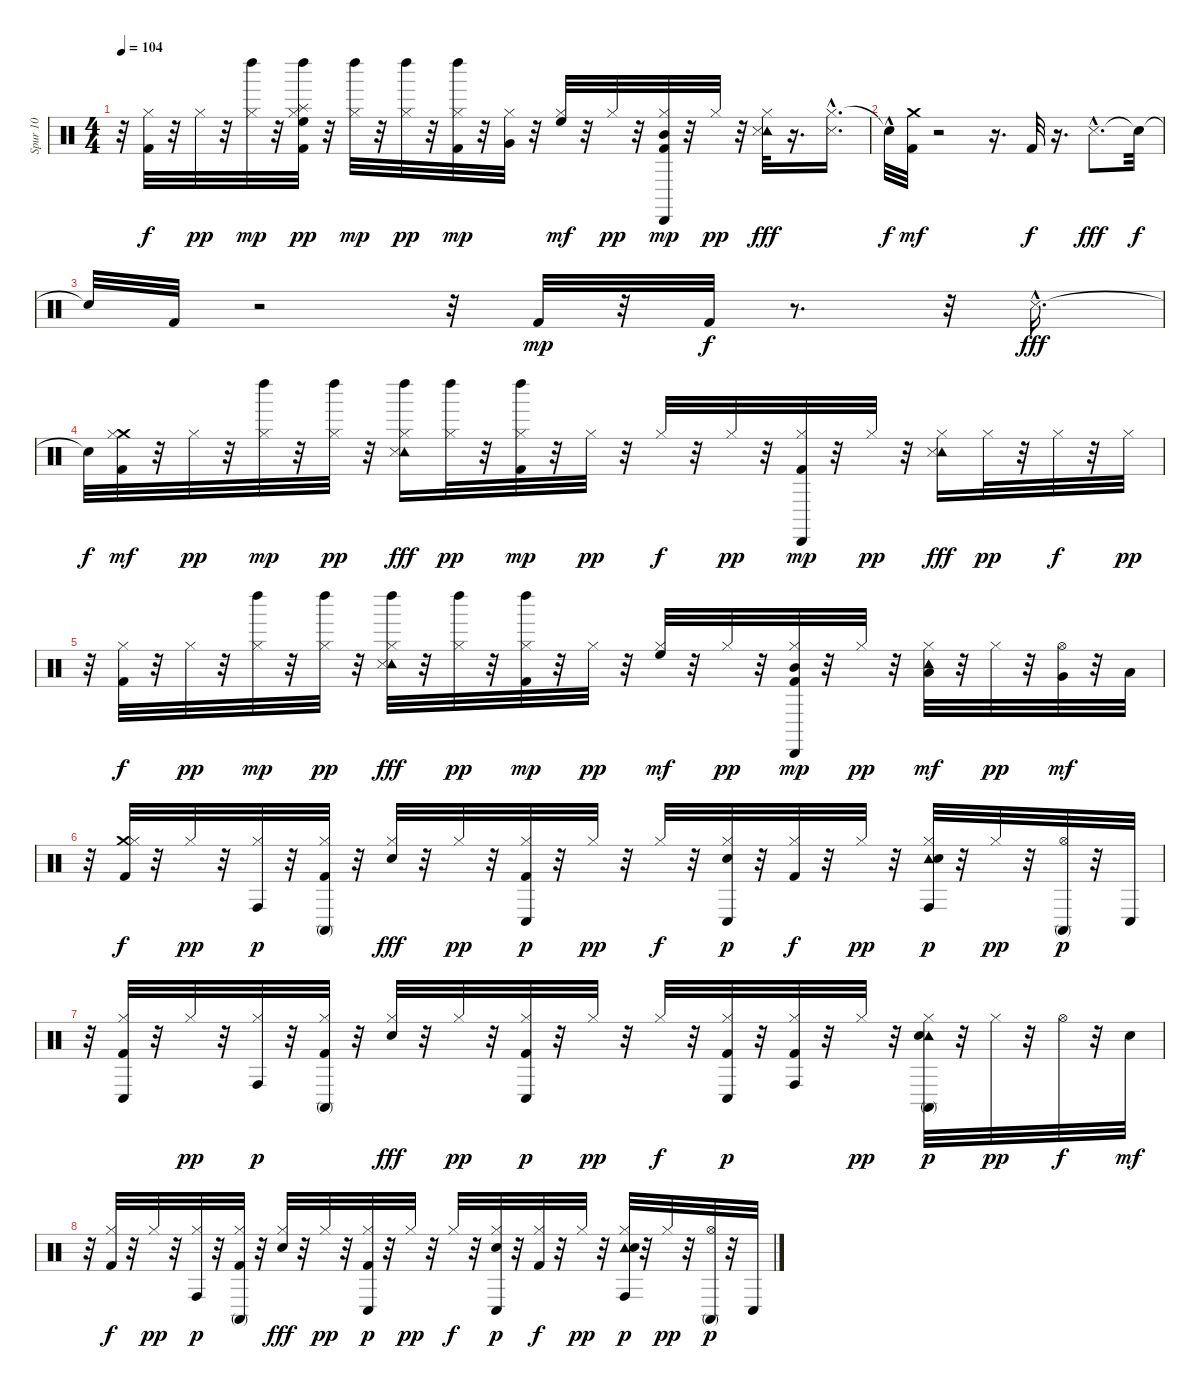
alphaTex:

\track ("Spur 10" "Spur 10") {instrument percussion}
\staff {score}
\articulation defaults
\ts (4 4)
\tempo 104
\clef neutral
\ks c
r.32{dy pp} ("Hi-Hat (closed)" "Kick (hit) 2").32{dy f} r.32 "Hi-Hat (closed)".32{dy pp} r.32 ("Hi-Hat (closed)" "Left Maraca (hit)").32{dy mp} r.32 ("Hi-Hat (closed)" "High Floor Tom (hit)" "Splash (hit)" "Left Maraca (hit)" "Kick (hit) 2").32{dy pp} r.32 ("Hi-Hat (closed)" "Left Maraca (hit)").32{dy mp} r.32 ("Hi-Hat (closed)" "Left Maraca (hit)").32{dy pp} r.32 ("Hi-Hat (closed)" "Left Maraca (hit)" "Kick (hit) 2").32{dy mp} r.32 ("Hi-Hat (closed)" "Very Low Tom (hit)").32 r.32 ("Hi-Hat (closed)" "High Floor Tom (hit)").32{dy mf} r.32 "Hi-Hat (closed)".32{dy pp} r.32 ("Hi-Hat (closed)" "Mid Tom (hit)" "Cabasa (hit)" "Kick (hit) 2").32{dy mp} r.32 "Hi-Hat (closed)".32{dy pp} r.32 ("Hi-Hat (closed)" "Tambourine (hit)" "Snare (side stick) 3").32{dy fff} r.16{d} ("Hi-Hat (closed)" "Snare (side stick) 3"{hac}).16{d} |
"Snare (hit)"{hac t}.32{dy f} ("Crash medium (hit)" "Kick (hit) 2").32{dy mf} r.2 r.16{d} "Kick (hit) 2".32{dy f} r.16{d} "Snare (side stick) 3"{hac}.8{d dy fff} "Snare (hit)"{t}.32{dy f} |
"Snare (hit)"{t}.32 "Kick (hit) 2".32 r.2 r.32 "Kick (hit) 2".32{dy mp} r.32 "Kick (hit) 2".32{dy f} r.8{d} r.32 "Snare (side stick) 3"{hac}.16{d dy fff} |
"Snare (hit)"{t}.32{dy f} ("Crash medium (hit)" "Hi-Hat (closed)" "Kick (hit) 2").32{dy mf} r.32 "Hi-Hat (closed)".32{dy pp} r.32 ("Hi-Hat (closed)" "Left Maraca (hit)").32{dy mp} r.32 ("Hi-Hat (closed)" "Left Maraca (hit)").32{dy pp} r.32 ("Hi-Hat (closed)" "Tambourine (hit)" "Left Maraca (hit)" "Snare (side stick) 3").16{dy fff} ("Hi-Hat (closed)" "Left Maraca (hit)").32{dy pp} r.32 ("Hi-Hat (closed)" "Left Maraca (hit)" "Kick (hit) 2").32{dy mp} r.32 "Hi-Hat (closed)".32{dy pp} r.32 "Hi-Hat (closed)".32{dy f} r.32 "Hi-Hat (closed)".32{dy pp} r.32 ("Hi-Hat (closed)" "Cabasa (hit)" "Kick (hit) 2").32{dy mp} r.32 "Hi-Hat (closed)".32{dy pp} r.32 ("Hi-Hat (closed)" "Tambourine (hit)" "Snare (side stick) 3").16{dy fff} "Hi-Hat (closed)".32{dy pp} r.32 "Hi-Hat (closed)".32{dy f} r.32 "Hi-Hat (closed)".32{dy pp} |
r.32 ("Hi-Hat (closed)" "Kick (hit) 2").32{dy f} r.32 "Hi-Hat (closed)".32{dy pp} r.32 ("Hi-Hat (closed)" "Left Maraca (hit)").32{dy mp} r.32 ("Hi-Hat (closed)" "Left Maraca (hit)").32{dy pp} r.32 ("Hi-Hat (closed)" "Tambourine (hit)" "Left Maraca (hit)" "Snare (side stick) 3").32{dy fff} r.32 ("Hi-Hat (closed)" "Left Maraca (hit)").32{dy pp} r.32 ("Hi-Hat (closed)" "Left Maraca (hit)" "Kick (hit) 2").32{dy mp} r.32 "Hi-Hat (closed)".32{dy pp} r.32 ("Hi-Hat (closed)" "High Floor Tom (hit)").32{dy mf} r.32 "Hi-Hat (closed)".32{dy pp} r.32 ("Hi-Hat (closed)" "Mid Tom (hit)" "Cabasa (hit)" "Kick (hit) 2").32{dy mp} r.32 "Hi-Hat (closed)".32{dy pp} r.32 ("Hi-Hat (closed)" "Low Tom (hit)" "Tambourine (hit)").32{dy mf} r.32 "Hi-Hat (closed)".32{dy pp} r.32 ("Very Low Tom (hit)" "Hi-Hat (open)").32{dy mf} r.32 "Low Floor Tom (hit)".32 |
r.32 ("Crash medium (hit)" "Hi-Hat (closed)" "Kick (hit) 2").32{dy f} r.32 "Hi-Hat (closed)".32{dy pp} r.32 ("Hi-Hat (closed)" "Conga high (hit)").32{dy p} r.32 ("Hi-Hat (closed)" "Kick (hit) 2" "Conga high (mute)").32 r.32 ("Hi-Hat (closed)" "Electric Snare (hit)").32{dy fff} r.32 "Hi-Hat (closed)".32{dy pp} r.32 ("Hi-Hat (closed)" "Kick (hit) 2" "Conga low (hit)").32{dy p} r.32 "Hi-Hat (closed)".32{dy pp} r.32 "Hi-Hat (closed)".32{dy f} r.32 ("Hi-Hat (closed)" "Electric Snare (hit)" "Conga low (hit)").32{dy p} r.32 ("Hi-Hat (closed)" "Kick (hit) 2").32{dy f} r.32 "Hi-Hat (closed)".32{dy pp} r.32 ("Hi-Hat (closed)" "Tambourine (hit)" "Electric Snare (hit)" "Conga high (hit)").32{dy p} r.32 "Hi-Hat (closed)".32{dy pp} r.32 ("Hi-Hat (open)" "Conga high (mute)").32{dy p} r.32 "Conga low (hit)".32 |
r.32 ("Hi-Hat (closed)" "Kick (hit) 2" "Conga low (hit)").32 r.32 "Hi-Hat (closed)".32{dy pp} r.32 ("Hi-Hat (closed)" "Conga high (hit)").32{dy p} r.32 ("Hi-Hat (closed)" "Kick (hit) 2" "Conga high (mute)").32 r.32 ("Hi-Hat (closed)" "Electric Snare (hit)").32{dy fff} r.32 "Hi-Hat (closed)".32{dy pp} r.32 ("Hi-Hat (closed)" "Kick (hit) 2" "Conga low (hit)").32{dy p} r.32 "Hi-Hat (closed)".32{dy pp} r.32 "Hi-Hat (closed)".32{dy f} r.32 ("Hi-Hat (closed)" "Kick (hit) 2" "Conga low (hit)").32{dy p} r.32 ("Hi-Hat (closed)" "Kick (hit) 2" "Conga high (hit)").32 r.32 "Hi-Hat (closed)".32{dy pp} r.32 ("Hi-Hat (closed)" "Tambourine (hit)" "Electric Snare (hit)" "Conga high (mute)").32{dy p} r.32 "Hi-Hat (closed)".32{dy pp} r.32 "Hi-Hat (open)".32{dy f} r.32 "Electric Snare (hit)".32{dy mf} |
r.32 ("Hi-Hat (closed)" "Kick (hit) 2").32{dy f} r.32 "Hi-Hat (closed)".32{dy pp} r.32 ("Hi-Hat (closed)" "Conga high (hit)").32{dy p} r.32 ("Hi-Hat (closed)" "Kick (hit) 2" "Conga high (mute)").32 r.32 ("Hi-Hat (closed)" "Electric Snare (hit)").32{dy fff} r.32 "Hi-Hat (closed)".32{dy pp} r.32 ("Hi-Hat (closed)" "Kick (hit) 2" "Conga low (hit)").32{dy p} r.32 "Hi-Hat (closed)".32{dy pp} r.32 "Hi-Hat (closed)".32{dy f} r.32 ("Hi-Hat (closed)" "Electric Snare (hit)" "Conga low (hit)").32{dy p} r.32 ("Hi-Hat (closed)" "Kick (hit) 2").32{dy f} r.32 "Hi-Hat (closed)".32{dy pp} r.32 ("Hi-Hat (closed)" "Tambourine (hit)" "Electric Snare (hit)" "Conga high (hit)").32{dy p} r.32 "Hi-Hat (closed)".32{dy pp} r.32 ("Hi-Hat (open)" "Conga high (mute)").32{dy p} r.32 "Conga low (hit)".32
